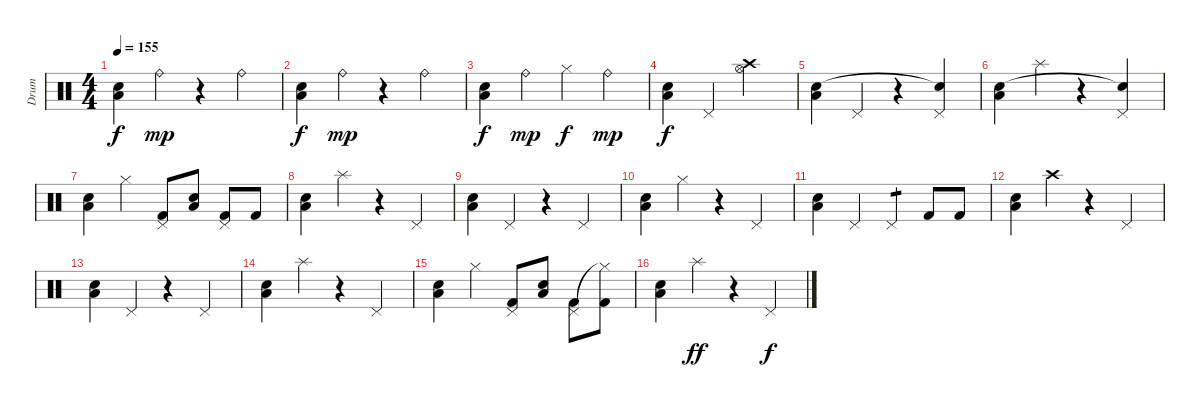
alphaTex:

\track ("Drum" "Drum") {instrument percussion}
\staff {score}
\articulation defaults
\ts (4 4)
\tempo 155
\clef neutral
\ks c
("Low Floor Tom (hit)" "Snare (hit) 2").4{dy f} "Ride (bell)".4{dy mp} r.4 "Ride (bell)".4 |
("Low Floor Tom (hit)" "Snare (hit) 2").4{dy f} "Ride (bell)".4{dy mp} r.4 "Ride (bell)".4 |
("Low Floor Tom (hit)" "Snare (hit) 2").4{dy f} "Ride (bell)".4{dy mp} "Hi-Hat (closed)".4{dy f} "Ride (bell)".4{dy mp} |
("Low Floor Tom (hit)" "Snare (hit) 2").4{dy f} "Pedal Hi-Hat (hit)".4 ("Crash high (hit)" "Hi-Hat (open)").2 |
("Low Floor Tom (hit)" "Snare (hit) 2").4 "Pedal Hi-Hat (hit)".4 r.4 ("Pedal Hi-Hat (hit)" "Snare (hit)"{t}).4 |
("Low Floor Tom (hit)" "Snare (hit) 2").4 "Splash (hit)".4 r.4 ("Pedal Hi-Hat (hit)" "Snare (hit)"{t}).4 |
("Low Floor Tom (hit)" "Snare (hit) 2").4 "Hi-Hat (closed)".4 ("Pedal Hi-Hat (hit)" "Kick (hit) 2").8 ("Low Floor Tom (hit)" "Snare (hit) 2").8 ("Pedal Hi-Hat (hit)" "Kick (hit) 2").8 "Kick (hit) 2".8 |
("Low Floor Tom (hit)" "Snare (hit) 2").4 "Splash (hit)".4 r.4 "Pedal Hi-Hat (hit)".4 |
("Low Floor Tom (hit)" "Snare (hit) 2").4 "Pedal Hi-Hat (hit)".4 r.4 "Pedal Hi-Hat (hit)".4 |
("Low Floor Tom (hit)" "Snare (hit) 2").4 "Hi-Hat (closed)".4 r.4 "Pedal Hi-Hat (hit)".4 |
("Low Floor Tom (hit)" "Snare (hit) 2").4 "Pedal Hi-Hat (hit)".4 "Pedal Hi-Hat (hit)".4{tp 1} "Kick (hit) 2".8 "Kick (hit) 2".8 |
("Low Floor Tom (hit)" "Snare (hit) 2").4 "Crash high (hit)".4 r.4 "Pedal Hi-Hat (hit)".4 |
("Low Floor Tom (hit)" "Snare (hit) 2").4 "Pedal Hi-Hat (hit)".4 r.4 "Pedal Hi-Hat (hit)".4 |
("Low Floor Tom (hit)" "Snare (hit) 2").4 "Splash (hit)".4 r.4 "Pedal Hi-Hat (hit)".4 |
("Low Floor Tom (hit)" "Snare (hit) 2").4 "Hi-Hat (closed)".4 ("Pedal Hi-Hat (hit)" "Kick (hit) 2").8 ("Low Floor Tom (hit)" "Snare (hit) 2").8 ("Pedal Hi-Hat (hit)" "Kick (hit) 2").8 ("Hi-Hat (closed)"{t} "Kick (hit) 2").8 |
("Low Floor Tom (hit)" "Snare (hit) 2").4 "Splash (hit)".4{dy ff} r.4 "Pedal Hi-Hat (hit)".4{dy f}
